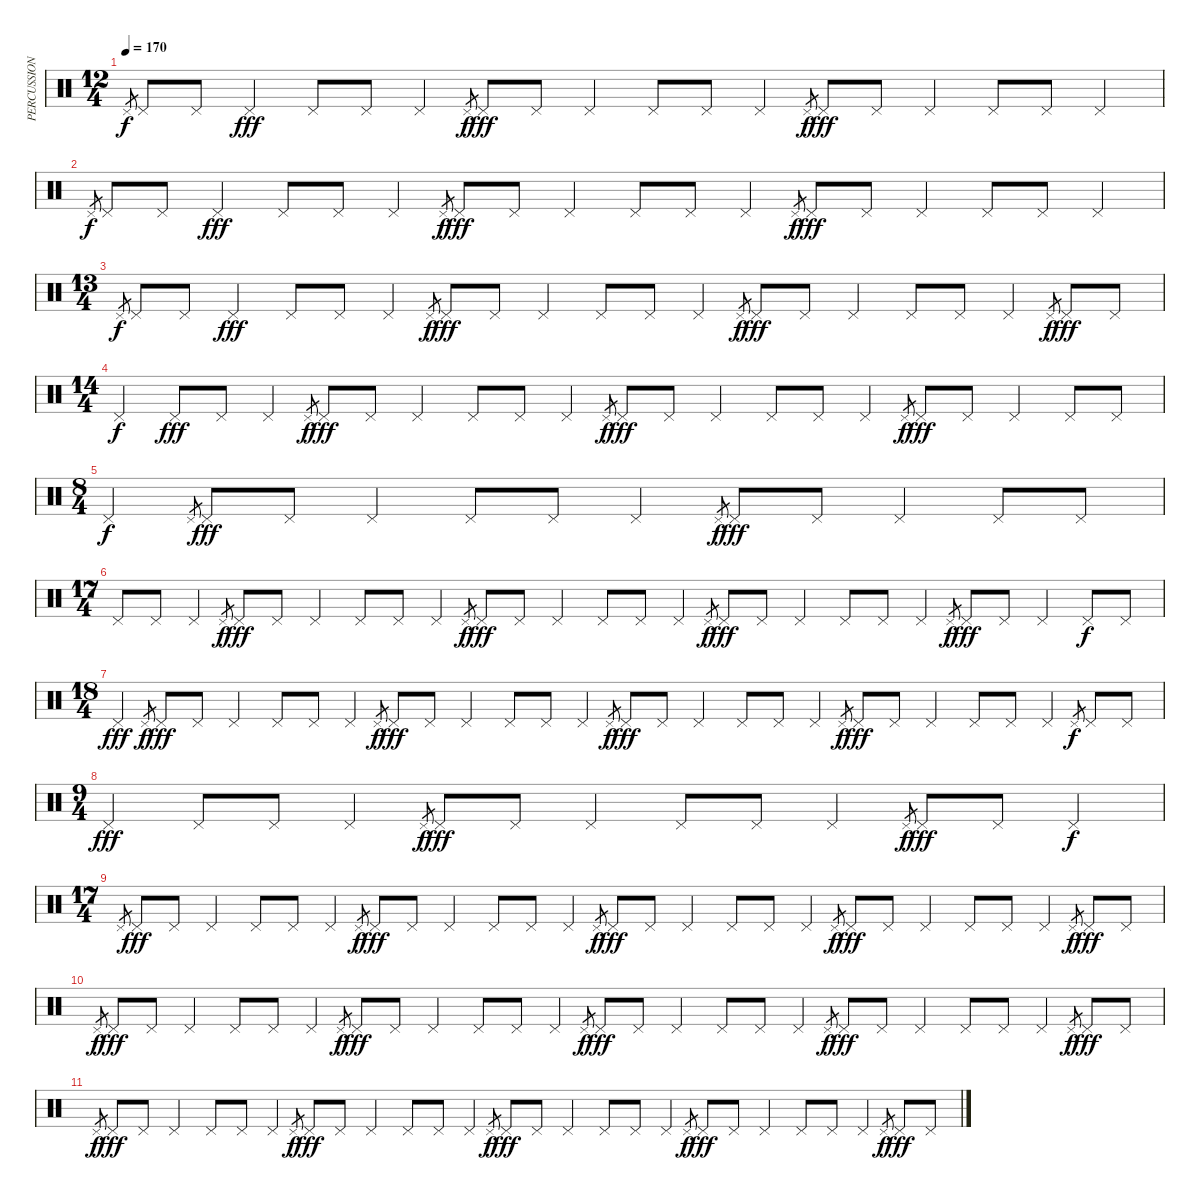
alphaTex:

\track ("PERCUSSION" "PERCUSSION") {instrument percussion}
\staff {score}
\articulation defaults
\ts (12 4)
\tempo 170
\clef neutral
\ks c "Pedal Hi-Hat (hit)".8{gr dy f} "Pedal Hi-Hat (hit)".8 "Pedal Hi-Hat (hit)".8 "Pedal Hi-Hat (hit)".4{dy fff} "Pedal Hi-Hat (hit)".8 "Pedal Hi-Hat (hit)".8 "Pedal Hi-Hat (hit)".4 "Pedal Hi-Hat (hit)".8{gr dy f} "Pedal Hi-Hat (hit)".8{dy fff} "Pedal Hi-Hat (hit)".8 "Pedal Hi-Hat (hit)".4 "Pedal Hi-Hat (hit)".8 "Pedal Hi-Hat (hit)".8 "Pedal Hi-Hat (hit)".4 "Pedal Hi-Hat (hit)".8{gr dy f} "Pedal Hi-Hat (hit)".8{dy fff} "Pedal Hi-Hat (hit)".8 "Pedal Hi-Hat (hit)".4 "Pedal Hi-Hat (hit)".8 "Pedal Hi-Hat (hit)".8 "Pedal Hi-Hat (hit)".4
|
"Pedal Hi-Hat (hit)".8{gr dy f} "Pedal Hi-Hat (hit)".8 "Pedal Hi-Hat (hit)".8 "Pedal Hi-Hat (hit)".4{dy fff} "Pedal Hi-Hat (hit)".8 "Pedal Hi-Hat (hit)".8 "Pedal Hi-Hat (hit)".4 "Pedal Hi-Hat (hit)".8{gr dy f} "Pedal Hi-Hat (hit)".8{dy fff} "Pedal Hi-Hat (hit)".8 "Pedal Hi-Hat (hit)".4 "Pedal Hi-Hat (hit)".8 "Pedal Hi-Hat (hit)".8 "Pedal Hi-Hat (hit)".4 "Pedal Hi-Hat (hit)".8{gr dy f} "Pedal Hi-Hat (hit)".8{dy fff} "Pedal Hi-Hat (hit)".8 "Pedal Hi-Hat (hit)".4 "Pedal Hi-Hat (hit)".8 "Pedal Hi-Hat (hit)".8 "Pedal Hi-Hat (hit)".4 |
\ts (13 4)
"Pedal Hi-Hat (hit)".8{gr dy f} "Pedal Hi-Hat (hit)".8 "Pedal Hi-Hat (hit)".8 "Pedal Hi-Hat (hit)".4{dy fff} "Pedal Hi-Hat (hit)".8 "Pedal Hi-Hat (hit)".8 "Pedal Hi-Hat (hit)".4 "Pedal Hi-Hat (hit)".8{gr dy f} "Pedal Hi-Hat (hit)".8{dy fff} "Pedal Hi-Hat (hit)".8 "Pedal Hi-Hat (hit)".4 "Pedal Hi-Hat (hit)".8 "Pedal Hi-Hat (hit)".8 "Pedal Hi-Hat (hit)".4 "Pedal Hi-Hat (hit)".8{gr dy f} "Pedal Hi-Hat (hit)".8{dy fff} "Pedal Hi-Hat (hit)".8 "Pedal Hi-Hat (hit)".4 "Pedal Hi-Hat (hit)".8 "Pedal Hi-Hat (hit)".8 "Pedal Hi-Hat (hit)".4 "Pedal Hi-Hat (hit)".8{gr dy f} "Pedal Hi-Hat (hit)".8{dy fff} "Pedal Hi-Hat (hit)".8 |
\ts (14 4)
"Pedal Hi-Hat (hit)".4{dy f} "Pedal Hi-Hat (hit)".8{dy fff} "Pedal Hi-Hat (hit)".8 "Pedal Hi-Hat (hit)".4 "Pedal Hi-Hat (hit)".8{gr dy f} "Pedal Hi-Hat (hit)".8{dy fff} "Pedal Hi-Hat (hit)".8 "Pedal Hi-Hat (hit)".4 "Pedal Hi-Hat (hit)".8 "Pedal Hi-Hat (hit)".8 "Pedal Hi-Hat (hit)".4 "Pedal Hi-Hat (hit)".8{gr dy f} "Pedal Hi-Hat (hit)".8{dy fff} "Pedal Hi-Hat (hit)".8 "Pedal Hi-Hat (hit)".4 "Pedal Hi-Hat (hit)".8 "Pedal Hi-Hat (hit)".8 "Pedal Hi-Hat (hit)".4 "Pedal Hi-Hat (hit)".8{gr dy f} "Pedal Hi-Hat (hit)".8{dy fff} "Pedal Hi-Hat (hit)".8 "Pedal Hi-Hat (hit)".4 "Pedal Hi-Hat (hit)".8 "Pedal Hi-Hat (hit)".8 |
\ts (8 4)
"Pedal Hi-Hat (hit)".4{dy f} "Pedal Hi-Hat (hit)".8{gr} "Pedal Hi-Hat (hit)".8{dy fff} "Pedal Hi-Hat (hit)".8 "Pedal Hi-Hat (hit)".4 "Pedal Hi-Hat (hit)".8 "Pedal Hi-Hat (hit)".8 "Pedal Hi-Hat (hit)".4 "Pedal Hi-Hat (hit)".8{gr dy f} "Pedal Hi-Hat (hit)".8{dy fff} "Pedal Hi-Hat (hit)".8 "Pedal Hi-Hat (hit)".4 "Pedal Hi-Hat (hit)".8 "Pedal Hi-Hat (hit)".8 |
\ts (17 4)
"Pedal Hi-Hat (hit)".8 "Pedal Hi-Hat (hit)".8 "Pedal Hi-Hat (hit)".4 "Pedal Hi-Hat (hit)".8{gr dy f} "Pedal Hi-Hat (hit)".8{dy fff} "Pedal Hi-Hat (hit)".8 "Pedal Hi-Hat (hit)".4 "Pedal Hi-Hat (hit)".8 "Pedal Hi-Hat (hit)".8 "Pedal Hi-Hat (hit)".4 "Pedal Hi-Hat (hit)".8{gr dy f} "Pedal Hi-Hat (hit)".8{dy fff} "Pedal Hi-Hat (hit)".8 "Pedal Hi-Hat (hit)".4 "Pedal Hi-Hat (hit)".8 "Pedal Hi-Hat (hit)".8 "Pedal Hi-Hat (hit)".4 "Pedal Hi-Hat (hit)".8{gr dy f} "Pedal Hi-Hat (hit)".8{dy fff} "Pedal Hi-Hat (hit)".8 "Pedal Hi-Hat (hit)".4 "Pedal Hi-Hat (hit)".8 "Pedal Hi-Hat (hit)".8 "Pedal Hi-Hat (hit)".4 "Pedal Hi-Hat (hit)".8{gr dy f} "Pedal Hi-Hat (hit)".8{dy fff} "Pedal Hi-Hat (hit)".8 "Pedal Hi-Hat (hit)".4 "Pedal Hi-Hat (hit)".8{dy f} "Pedal Hi-Hat (hit)".8 |
\ts (18 4)
"Pedal Hi-Hat (hit)".4{dy fff} "Pedal Hi-Hat (hit)".8{gr dy f} "Pedal Hi-Hat (hit)".8{dy fff} "Pedal Hi-Hat (hit)".8 "Pedal Hi-Hat (hit)".4 "Pedal Hi-Hat (hit)".8 "Pedal Hi-Hat (hit)".8 "Pedal Hi-Hat (hit)".4 "Pedal Hi-Hat (hit)".8{gr dy f} "Pedal Hi-Hat (hit)".8{dy fff} "Pedal Hi-Hat (hit)".8 "Pedal Hi-Hat (hit)".4 "Pedal Hi-Hat (hit)".8 "Pedal Hi-Hat (hit)".8 "Pedal Hi-Hat (hit)".4 "Pedal Hi-Hat (hit)".8{gr dy f} "Pedal Hi-Hat (hit)".8{dy fff} "Pedal Hi-Hat (hit)".8 "Pedal Hi-Hat (hit)".4 "Pedal Hi-Hat (hit)".8 "Pedal Hi-Hat (hit)".8 "Pedal Hi-Hat (hit)".4 "Pedal Hi-Hat (hit)".8{gr dy f} "Pedal Hi-Hat (hit)".8{dy fff} "Pedal Hi-Hat (hit)".8 "Pedal Hi-Hat (hit)".4 "Pedal Hi-Hat (hit)".8 "Pedal Hi-Hat (hit)".8 "Pedal Hi-Hat (hit)".4 "Pedal Hi-Hat (hit)".8{gr dy f} "Pedal Hi-Hat (hit)".8 "Pedal Hi-Hat (hit)".8 |
\ts (9 4)
"Pedal Hi-Hat (hit)".4{dy fff} "Pedal Hi-Hat (hit)".8 "Pedal Hi-Hat (hit)".8 "Pedal Hi-Hat (hit)".4 "Pedal Hi-Hat (hit)".8{gr dy f} "Pedal Hi-Hat (hit)".8{dy fff} "Pedal Hi-Hat (hit)".8 "Pedal Hi-Hat (hit)".4 "Pedal Hi-Hat (hit)".8 "Pedal Hi-Hat (hit)".8 "Pedal Hi-Hat (hit)".4 "Pedal Hi-Hat (hit)".8{gr dy f} "Pedal Hi-Hat (hit)".8{dy fff} "Pedal Hi-Hat (hit)".8 "Pedal Hi-Hat (hit)".4{dy f} |
\ts (17 4)
"Pedal Hi-Hat (hit)".8{gr} "Pedal Hi-Hat (hit)".8{dy fff} "Pedal Hi-Hat (hit)".8 "Pedal Hi-Hat (hit)".4 "Pedal Hi-Hat (hit)".8 "Pedal Hi-Hat (hit)".8 "Pedal Hi-Hat (hit)".4 "Pedal Hi-Hat (hit)".8{gr dy f} "Pedal Hi-Hat (hit)".8{dy fff} "Pedal Hi-Hat (hit)".8 "Pedal Hi-Hat (hit)".4 "Pedal Hi-Hat (hit)".8 "Pedal Hi-Hat (hit)".8 "Pedal Hi-Hat (hit)".4 "Pedal Hi-Hat (hit)".8{gr dy f} "Pedal Hi-Hat (hit)".8{dy fff} "Pedal Hi-Hat (hit)".8 "Pedal Hi-Hat (hit)".4 "Pedal Hi-Hat (hit)".8 "Pedal Hi-Hat (hit)".8 "Pedal Hi-Hat (hit)".4 "Pedal Hi-Hat (hit)".8{gr dy f} "Pedal Hi-Hat (hit)".8{dy fff} "Pedal Hi-Hat (hit)".8 "Pedal Hi-Hat (hit)".4 "Pedal Hi-Hat (hit)".8 "Pedal Hi-Hat (hit)".8 "Pedal Hi-Hat (hit)".4 "Pedal Hi-Hat (hit)".8{gr dy f} "Pedal Hi-Hat (hit)".8{dy fff} "Pedal Hi-Hat (hit)".8 |
"Pedal Hi-Hat (hit)".8{gr dy f} "Pedal Hi-Hat (hit)".8{dy fff volume 8} "Pedal Hi-Hat (hit)".8 "Pedal Hi-Hat (hit)".4 "Pedal Hi-Hat (hit)".8 "Pedal Hi-Hat (hit)".8 "Pedal Hi-Hat (hit)".4 "Pedal Hi-Hat (hit)".8{gr dy f} "Pedal Hi-Hat (hit)".8{dy fff} "Pedal Hi-Hat (hit)".8 "Pedal Hi-Hat (hit)".4 "Pedal Hi-Hat (hit)".8 "Pedal Hi-Hat (hit)".8 "Pedal Hi-Hat (hit)".4 "Pedal Hi-Hat (hit)".8{gr dy f} "Pedal Hi-Hat (hit)".8{dy fff} "Pedal Hi-Hat (hit)".8 "Pedal Hi-Hat (hit)".4 "Pedal Hi-Hat (hit)".8 "Pedal Hi-Hat (hit)".8 "Pedal Hi-Hat (hit)".4 "Pedal Hi-Hat (hit)".8{gr dy f} "Pedal Hi-Hat (hit)".8{dy fff} "Pedal Hi-Hat (hit)".8 "Pedal Hi-Hat (hit)".4 "Pedal Hi-Hat (hit)".8 "Pedal Hi-Hat (hit)".8 "Pedal Hi-Hat (hit)".4 "Pedal Hi-Hat (hit)".8{gr dy f} "Pedal Hi-Hat (hit)".8{dy fff} "Pedal Hi-Hat (hit)".8 |
"Pedal Hi-Hat (hit)".8{gr dy f} "Pedal Hi-Hat (hit)".8{dy fff volume 4} "Pedal Hi-Hat (hit)".8 "Pedal Hi-Hat (hit)".4 "Pedal Hi-Hat (hit)".8 "Pedal Hi-Hat (hit)".8 "Pedal Hi-Hat (hit)".4 "Pedal Hi-Hat (hit)".8{gr dy f} "Pedal Hi-Hat (hit)".8{dy fff} "Pedal Hi-Hat (hit)".8 "Pedal Hi-Hat (hit)".4 "Pedal Hi-Hat (hit)".8 "Pedal Hi-Hat (hit)".8 "Pedal Hi-Hat (hit)".4 "Pedal Hi-Hat (hit)".8{gr dy f} "Pedal Hi-Hat (hit)".8{dy fff} "Pedal Hi-Hat (hit)".8 "Pedal Hi-Hat (hit)".4 "Pedal Hi-Hat (hit)".8 "Pedal Hi-Hat (hit)".8 "Pedal Hi-Hat (hit)".4 "Pedal Hi-Hat (hit)".8{gr dy f} "Pedal Hi-Hat (hit)".8{dy fff} "Pedal Hi-Hat (hit)".8 "Pedal Hi-Hat (hit)".4 "Pedal Hi-Hat (hit)".8 "Pedal Hi-Hat (hit)".8 "Pedal Hi-Hat (hit)".4 "Pedal Hi-Hat (hit)".8{gr dy f} "Pedal Hi-Hat (hit)".8{dy fff} "Pedal Hi-Hat (hit)".8
